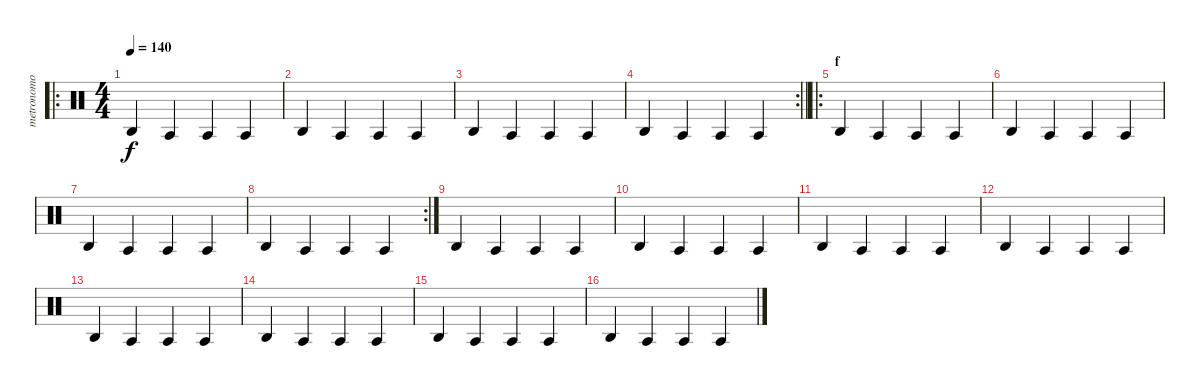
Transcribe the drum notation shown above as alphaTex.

\track ("metronomo" "metronomo") {instrument percussion}
\staff {score}
\articulation defaults
\ro
\ts (4 4)
\tempo 140
\clef neutral
\ks c "Agogo high (hit)".4{dy f} "Agogo tow (hit)".4 "Agogo tow (hit)".4 "Agogo tow (hit)".4
|
"Agogo high (hit)".4 "Agogo tow (hit)".4 "Agogo tow (hit)".4 "Agogo tow (hit)".4 |
"Agogo high (hit)".4 "Agogo tow (hit)".4 "Agogo tow (hit)".4 "Agogo tow (hit)".4 |
\rc 2
\barLineRight lightlight "Agogo high (hit)".4 "Agogo tow (hit)".4 "Agogo tow (hit)".4 "Agogo tow (hit)".4
|
\ro
\section ("" "f")
"Agogo high (hit)".4 "Agogo tow (hit)".4 "Agogo tow (hit)".4 "Agogo tow (hit)".4 |
"Agogo high (hit)".4 "Agogo tow (hit)".4 "Agogo tow (hit)".4 "Agogo tow (hit)".4 |
"Agogo high (hit)".4 "Agogo tow (hit)".4 "Agogo tow (hit)".4 "Agogo tow (hit)".4 |
\rc 2 "Agogo high (hit)".4 "Agogo tow (hit)".4 "Agogo tow (hit)".4 "Agogo tow (hit)".4
|
"Agogo high (hit)".4 "Agogo tow (hit)".4 "Agogo tow (hit)".4 "Agogo tow (hit)".4 |
"Agogo high (hit)".4 "Agogo tow (hit)".4 "Agogo tow (hit)".4 "Agogo tow (hit)".4 |
"Agogo high (hit)".4 "Agogo tow (hit)".4 "Agogo tow (hit)".4 "Agogo tow (hit)".4 |
"Agogo high (hit)".4 "Agogo tow (hit)".4 "Agogo tow (hit)".4 "Agogo tow (hit)".4 |
"Agogo high (hit)".4 "Agogo tow (hit)".4 "Agogo tow (hit)".4 "Agogo tow (hit)".4 |
"Agogo high (hit)".4 "Agogo tow (hit)".4 "Agogo tow (hit)".4 "Agogo tow (hit)".4 |
"Agogo high (hit)".4 "Agogo tow (hit)".4 "Agogo tow (hit)".4 "Agogo tow (hit)".4 |
"Agogo high (hit)".4 "Agogo tow (hit)".4 "Agogo tow (hit)".4 "Agogo tow (hit)".4
